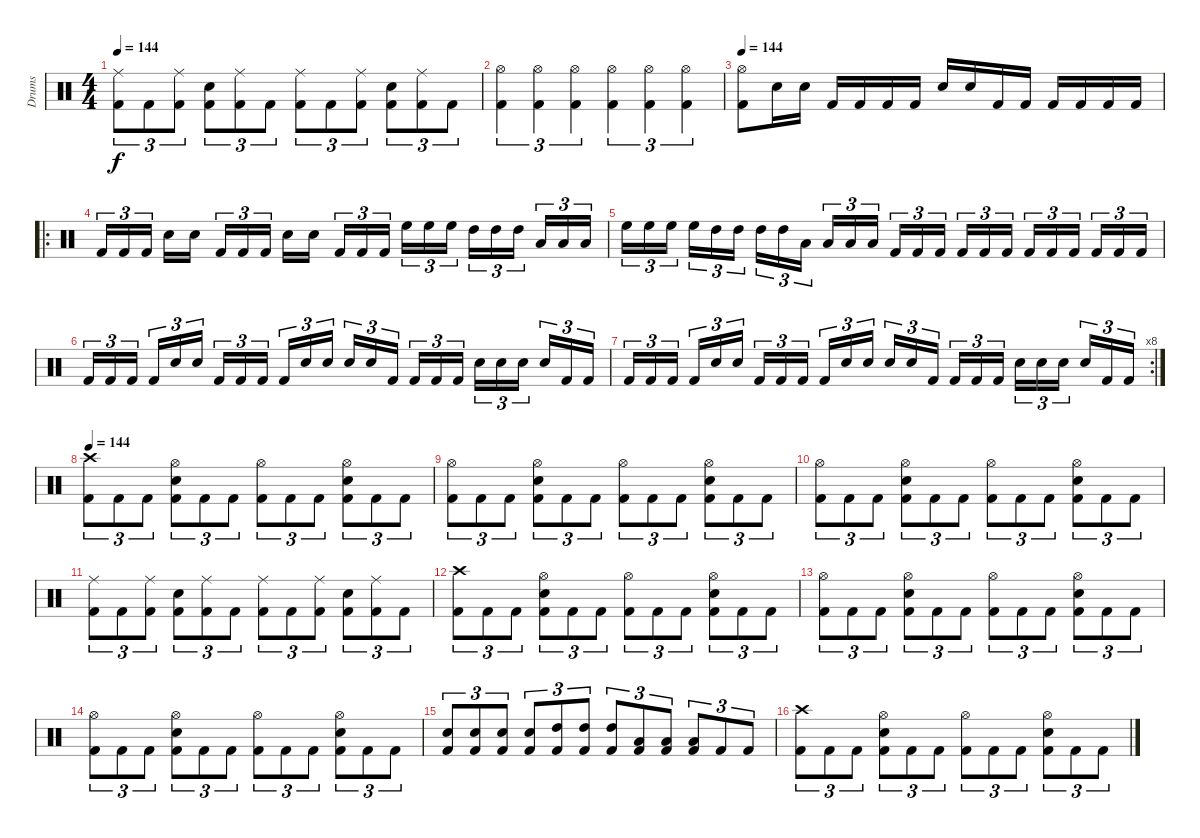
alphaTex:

\track ("Drums" "Drums") {instrument percussion}
\staff {score}
\articulation defaults
\ts (4 4)
\tempo 144
\clef neutral
\ks c
("Ride (middle)" "Kick (hit) 2").8{tu (3 2) dy f} "Kick (hit) 2".8{tu (3 2)} ("Ride (middle)" "Kick (hit) 2").8{tu (3 2)} ("Snare (hit) 2" "Kick (hit) 2").8{tu (3 2)} ("Ride (middle)" "Kick (hit) 2").8{tu (3 2)} "Kick (hit) 2".8{tu (3 2)} ("Ride (middle)" "Kick (hit) 2").8{tu (3 2)} "Kick (hit) 2".8{tu (3 2)} ("Ride (middle)" "Kick (hit) 2").8{tu (3 2)} ("Snare (hit) 2" "Kick (hit) 2").8{tu (3 2)} ("Ride (middle)" "Kick (hit) 2").8{tu (3 2)} "Kick (hit) 2".8{tu (3 2)} |
("Hi-Hat (open)" "Kick (hit) 2").4{tu (3 2)} ("Hi-Hat (open)" "Kick (hit) 2").4{tu (3 2)} ("Hi-Hat (open)" "Kick (hit) 2").4{tu (3 2)} ("Hi-Hat (open)" "Kick (hit) 2").4{tu (3 2)} ("Hi-Hat (open)" "Kick (hit) 2").4{tu (3 2)} ("Hi-Hat (open)" "Kick (hit) 2").4{tu (3 2)} |
\tempo 144
("Hi-Hat (open)" "Kick (hit) 2").8 "Snare (hit) 2".16 "Snare (hit) 2".16 "Kick (hit) 2".16 "Kick (hit) 2".16 "Kick (hit) 2".16 "Kick (hit) 2".16 "Snare (hit) 2".16 "Snare (hit) 2".16 "Kick (hit) 2".16 "Kick (hit) 2".16 "Kick (hit) 2".16 "Kick (hit) 2".16 "Kick (hit) 2".16 "Kick (hit) 2".16 |
\ro "Kick (hit) 2".16{tu (3 2)} "Kick (hit) 2".16{tu (3 2)} "Kick (hit) 2".16{tu (3 2)} "Snare (hit) 2".16 "Snare (hit) 2".16 "Kick (hit) 2".16{tu (3 2)} "Kick (hit) 2".16{tu (3 2)} "Kick (hit) 2".16{tu (3 2)} "Snare (hit) 2".16 "Snare (hit) 2".16 "Kick (hit) 2".16{tu (3 2)} "Kick (hit) 2".16{tu (3 2)} "Kick (hit) 2".16{tu (3 2)} "High Floor Tom (hit)".16{tu (3 2)} "High Floor Tom (hit)".16{tu (3 2)} "High Floor Tom (hit)".16{tu (3 2)} "High Tom (hit)".16{tu (3 2)} "High Tom (hit)".16{tu (3 2)} "High Tom (hit)".16{tu (3 2)} "Low Tom (hit)".16{tu (3 2)} "Low Tom (hit)".16{tu (3 2)} "Low Tom (hit)".16{tu (3 2)}
|
"High Floor Tom (hit)".16{tu (3 2)} "High Floor Tom (hit)".16{tu (3 2)} "High Floor Tom (hit)".16{tu (3 2)} "High Floor Tom (hit)".16{tu (3 2)} "High Tom (hit)".16{tu (3 2)} "High Tom (hit)".16{tu (3 2)} "High Tom (hit)".16{tu (3 2)} "High Tom (hit)".16{tu (3 2)} "Low Tom (hit)".16{tu (3 2)} "Low Tom (hit)".16{tu (3 2)} "Low Tom (hit)".16{tu (3 2)} "Low Tom (hit)".16{tu (3 2)} "Kick (hit) 2".16{tu (3 2)} "Kick (hit) 2".16{tu (3 2)} "Kick (hit) 2".16{tu (3 2)} "Kick (hit) 2".16{tu (3 2)} "Kick (hit) 2".16{tu (3 2)} "Kick (hit) 2".16{tu (3 2)} "Kick (hit) 2".16{tu (3 2)} "Kick (hit) 2".16{tu (3 2)} "Kick (hit) 2".16{tu (3 2)} "Kick (hit) 2".16{tu (3 2)} "Kick (hit) 2".16{tu (3 2)} "Kick (hit) 2".16{tu (3 2)} |
"Kick (hit) 2".16{tu (3 2)} "Kick (hit) 2".16{tu (3 2)} "Kick (hit) 2".16{tu (3 2)} "Kick (hit) 2".16{tu (3 2)} "Snare (hit) 2".16{tu (3 2)} "Snare (hit) 2".16{tu (3 2)} "Kick (hit) 2".16{tu (3 2)} "Kick (hit) 2".16{tu (3 2)} "Kick (hit) 2".16{tu (3 2)} "Kick (hit) 2".16{tu (3 2)} "Snare (hit) 2".16{tu (3 2)} "Snare (hit) 2".16{tu (3 2)} "Snare (hit) 2".16{tu (3 2)} "Snare (hit) 2".16{tu (3 2)} "Kick (hit) 2".16{tu (3 2)} "Kick (hit) 2".16{tu (3 2)} "Kick (hit) 2".16{tu (3 2)} "Kick (hit) 2".16{tu (3 2)} "Snare (hit) 2".16{tu (3 2)} "Snare (hit) 2".16{tu (3 2)} "Snare (hit) 2".16{tu (3 2)} "Snare (hit) 2".16{tu (3 2)} "Kick (hit) 2".16{tu (3 2)} "Kick (hit) 2".16{tu (3 2)} |
\rc 8 "Kick (hit) 2".16{tu (3 2)} "Kick (hit) 2".16{tu (3 2)} "Kick (hit) 2".16{tu (3 2)} "Kick (hit) 2".16{tu (3 2)} "Snare (hit) 2".16{tu (3 2)} "Snare (hit) 2".16{tu (3 2)} "Kick (hit) 2".16{tu (3 2)} "Kick (hit) 2".16{tu (3 2)} "Kick (hit) 2".16{tu (3 2)} "Kick (hit) 2".16{tu (3 2)} "Snare (hit) 2".16{tu (3 2)} "Snare (hit) 2".16{tu (3 2)} "Snare (hit) 2".16{tu (3 2)} "Snare (hit) 2".16{tu (3 2)} "Kick (hit) 2".16{tu (3 2)} "Kick (hit) 2".16{tu (3 2)} "Kick (hit) 2".16{tu (3 2)} "Kick (hit) 2".16{tu (3 2)} "Snare (hit) 2".16{tu (3 2)} "Snare (hit) 2".16{tu (3 2)} "Snare (hit) 2".16{tu (3 2)} "Snare (hit) 2".16{tu (3 2)} "Kick (hit) 2".16{tu (3 2)} "Kick (hit) 2".16{tu (3 2)}
|
\tempo 144
("Crash high (hit)" "Kick (hit) 2").8{tu (3 2)} "Kick (hit) 2".8{tu (3 2)} "Kick (hit) 2".8{tu (3 2)} ("Hi-Hat (open)" "Snare (hit) 2" "Kick (hit) 2").8{tu (3 2)} "Kick (hit) 2".8{tu (3 2)} "Kick (hit) 2".8{tu (3 2)} ("Hi-Hat (open)" "Kick (hit) 2").8{tu (3 2)} "Kick (hit) 2".8{tu (3 2)} "Kick (hit) 2".8{tu (3 2)} ("Hi-Hat (open)" "Snare (hit) 2" "Kick (hit) 2").8{tu (3 2)} "Kick (hit) 2".8{tu (3 2)} "Kick (hit) 2".8{tu (3 2)} |
("Hi-Hat (open)" "Kick (hit) 2").8{tu (3 2)} "Kick (hit) 2".8{tu (3 2)} "Kick (hit) 2".8{tu (3 2)} ("Hi-Hat (open)" "Snare (hit) 2" "Kick (hit) 2").8{tu (3 2)} "Kick (hit) 2".8{tu (3 2)} "Kick (hit) 2".8{tu (3 2)} ("Hi-Hat (open)" "Kick (hit) 2").8{tu (3 2)} "Kick (hit) 2".8{tu (3 2)} "Kick (hit) 2".8{tu (3 2)} ("Hi-Hat (open)" "Snare (hit) 2" "Kick (hit) 2").8{tu (3 2)} "Kick (hit) 2".8{tu (3 2)} "Kick (hit) 2".8{tu (3 2)} |
("Hi-Hat (open)" "Kick (hit) 2").8{tu (3 2)} "Kick (hit) 2".8{tu (3 2)} "Kick (hit) 2".8{tu (3 2)} ("Hi-Hat (open)" "Snare (hit) 2" "Kick (hit) 2").8{tu (3 2)} "Kick (hit) 2".8{tu (3 2)} "Kick (hit) 2".8{tu (3 2)} ("Hi-Hat (open)" "Kick (hit) 2").8{tu (3 2)} "Kick (hit) 2".8{tu (3 2)} "Kick (hit) 2".8{tu (3 2)} ("Hi-Hat (open)" "Snare (hit) 2" "Kick (hit) 2").8{tu (3 2)} "Kick (hit) 2".8{tu (3 2)} "Kick (hit) 2".8{tu (3 2)} |
("Ride (middle)" "Kick (hit) 2").8{tu (3 2)} "Kick (hit) 2".8{tu (3 2)} ("Ride (middle)" "Kick (hit) 2").8{tu (3 2)} ("Snare (hit) 2" "Kick (hit) 2").8{tu (3 2)} ("Ride (middle)" "Kick (hit) 2").8{tu (3 2)} "Kick (hit) 2".8{tu (3 2)} ("Ride (middle)" "Kick (hit) 2").8{tu (3 2)} "Kick (hit) 2".8{tu (3 2)} ("Ride (middle)" "Kick (hit) 2").8{tu (3 2)} ("Snare (hit) 2" "Kick (hit) 2").8{tu (3 2)} ("Ride (middle)" "Kick (hit) 2").8{tu (3 2)} "Kick (hit) 2".8{tu (3 2)} |
("Crash high (hit)" "Kick (hit) 2").8{tu (3 2)} "Kick (hit) 2".8{tu (3 2)} "Kick (hit) 2".8{tu (3 2)} ("Hi-Hat (open)" "Snare (hit) 2" "Kick (hit) 2").8{tu (3 2)} "Kick (hit) 2".8{tu (3 2)} "Kick (hit) 2".8{tu (3 2)} ("Hi-Hat (open)" "Kick (hit) 2").8{tu (3 2)} "Kick (hit) 2".8{tu (3 2)} "Kick (hit) 2".8{tu (3 2)} ("Hi-Hat (open)" "Snare (hit) 2" "Kick (hit) 2").8{tu (3 2)} "Kick (hit) 2".8{tu (3 2)} "Kick (hit) 2".8{tu (3 2)} |
("Hi-Hat (open)" "Kick (hit) 2").8{tu (3 2)} "Kick (hit) 2".8{tu (3 2)} "Kick (hit) 2".8{tu (3 2)} ("Hi-Hat (open)" "Snare (hit) 2" "Kick (hit) 2").8{tu (3 2)} "Kick (hit) 2".8{tu (3 2)} "Kick (hit) 2".8{tu (3 2)} ("Hi-Hat (open)" "Kick (hit) 2").8{tu (3 2)} "Kick (hit) 2".8{tu (3 2)} "Kick (hit) 2".8{tu (3 2)} ("Hi-Hat (open)" "Snare (hit) 2" "Kick (hit) 2").8{tu (3 2)} "Kick (hit) 2".8{tu (3 2)} "Kick (hit) 2".8{tu (3 2)} |
("Hi-Hat (open)" "Kick (hit) 2").8{tu (3 2)} "Kick (hit) 2".8{tu (3 2)} "Kick (hit) 2".8{tu (3 2)} ("Hi-Hat (open)" "Snare (hit) 2" "Kick (hit) 2").8{tu (3 2)} "Kick (hit) 2".8{tu (3 2)} "Kick (hit) 2".8{tu (3 2)} ("Hi-Hat (open)" "Kick (hit) 2").8{tu (3 2)} "Kick (hit) 2".8{tu (3 2)} "Kick (hit) 2".8{tu (3 2)} ("Hi-Hat (open)" "Snare (hit) 2" "Kick (hit) 2").8{tu (3 2)} "Kick (hit) 2".8{tu (3 2)} "Kick (hit) 2".8{tu (3 2)} |
("Snare (hit) 2" "Kick (hit) 2").8{tu (3 2)} ("Snare (hit) 2" "Kick (hit) 2").8{tu (3 2)} ("Snare (hit) 2" "Kick (hit) 2").8{tu (3 2)} ("Snare (hit) 2" "Kick (hit) 2").8{tu (3 2)} ("High Tom (hit)" "Kick (hit) 2").8{tu (3 2)} ("High Tom (hit)" "Kick (hit) 2").8{tu (3 2)} ("High Tom (hit)" "Kick (hit) 2").8{tu (3 2)} ("Low Tom (hit)" "Kick (hit) 2").8{tu (3 2)} ("Low Tom (hit)" "Kick (hit) 2").8{tu (3 2)} ("Low Tom (hit)" "Kick (hit) 2").8{tu (3 2)} "Kick (hit) 2".8{tu (3 2)} "Kick (hit) 2".8{tu (3 2)} |
("Crash high (hit)" "Kick (hit) 2").8{tu (3 2)} "Kick (hit) 2".8{tu (3 2)} "Kick (hit) 2".8{tu (3 2)} ("Hi-Hat (open)" "Snare (hit) 2" "Kick (hit) 2").8{tu (3 2)} "Kick (hit) 2".8{tu (3 2)} "Kick (hit) 2".8{tu (3 2)} ("Hi-Hat (open)" "Kick (hit) 2").8{tu (3 2)} "Kick (hit) 2".8{tu (3 2)} "Kick (hit) 2".8{tu (3 2)} ("Hi-Hat (open)" "Snare (hit) 2" "Kick (hit) 2").8{tu (3 2)} "Kick (hit) 2".8{tu (3 2)} "Kick (hit) 2".8{tu (3 2)}
